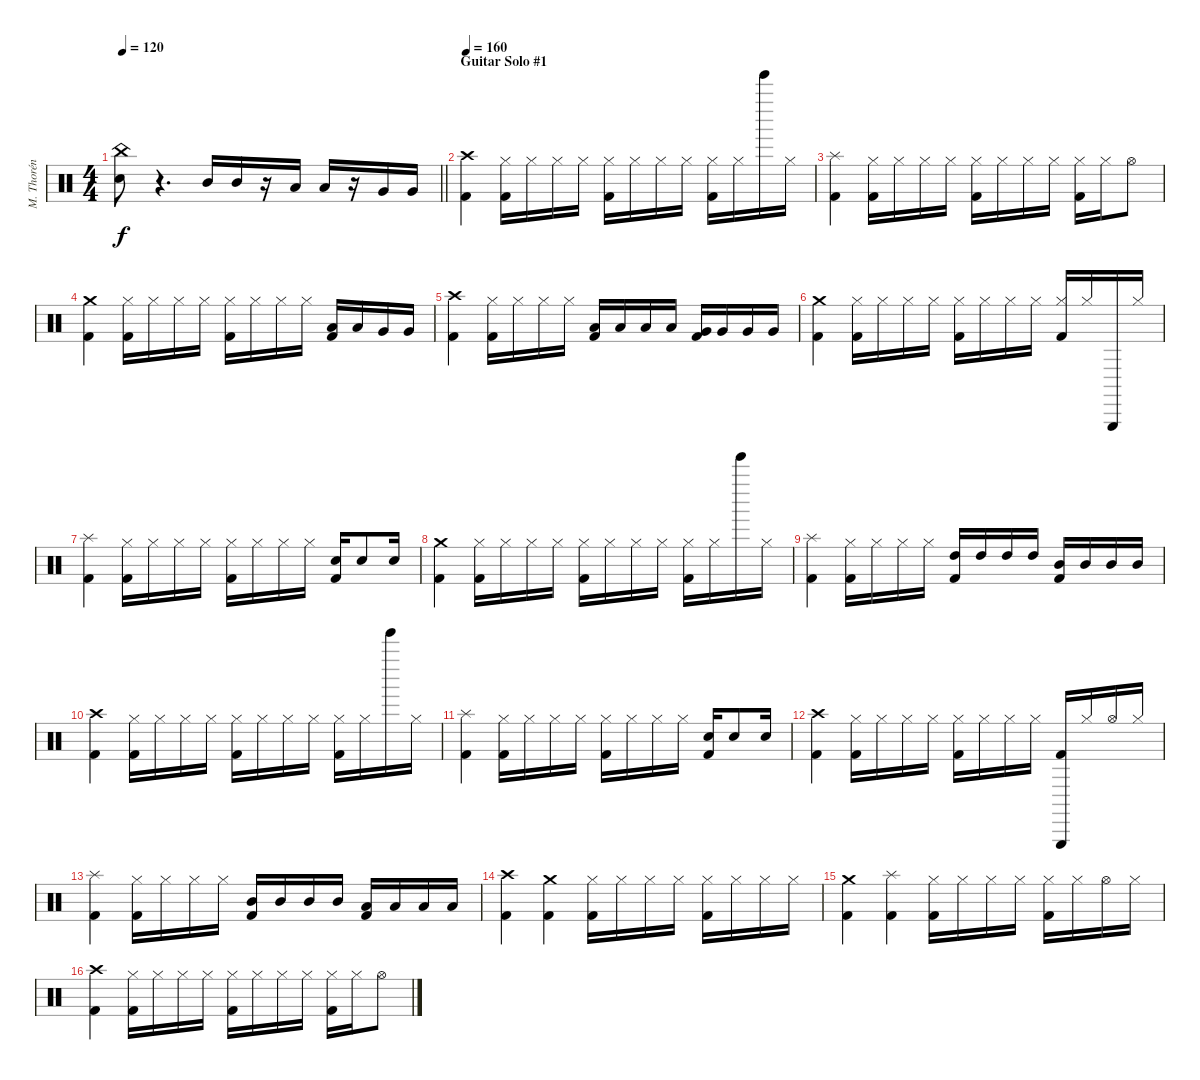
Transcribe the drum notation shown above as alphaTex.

\track ("M. Thorén (Drums)" "M. Thorén ") {instrument percussion}
\staff {score}
\articulation defaults
\ts (4 4)
\tempo 120
\clef neutral
\barLineRight lightlight
\ks c
("China (hit)" "Electric Snare (hit)").8{dy f} r.4{d} "Mid Tom (hit)".16 "Mid Tom (hit)".16 r.16 "Low Tom (hit)".16 "Low Tom (hit)".16 r.16 "Very Low Tom (hit)".16 "Very Low Tom (hit)".16 |
\section ("" "Guitar Solo #1")
\tempo 160
("Crash high (hit)" "Kick (hit) 2").4 ("Hi-Hat (closed)" "Kick (hit) 2").16 "Hi-Hat (closed)".16 "Hi-Hat (closed)".16 "Hi-Hat (closed)".16 ("Hi-Hat (closed)" "Kick (hit) 2").16 "Hi-Hat (closed)".16 "Hi-Hat (closed)".16 "Hi-Hat (closed)".16 ("Hi-Hat (closed)" "Kick (hit) 2").16 "Hi-Hat (closed)".16 "Tinkle Bell (hit)".16 "Hi-Hat (closed)".16 |
("Splash (hit)" "Kick (hit) 2").4 ("Hi-Hat (closed)" "Kick (hit) 2").16 "Hi-Hat (closed)".16 "Hi-Hat (closed)".16 "Hi-Hat (closed)".16 ("Hi-Hat (closed)" "Kick (hit) 2").16 "Hi-Hat (closed)".16 "Hi-Hat (closed)".16 "Hi-Hat (closed)".16 ("Hi-Hat (closed)" "Kick (hit) 2").16 "Hi-Hat (closed)".16 "Hi-Hat (open)".8 |
("Crash medium (hit)" "Kick (hit) 2").4 ("Hi-Hat (closed)" "Kick (hit) 2").16 "Hi-Hat (closed)".16 "Hi-Hat (closed)".16 "Hi-Hat (closed)".16 ("Hi-Hat (closed)" "Kick (hit) 2").16 "Hi-Hat (closed)".16 "Hi-Hat (closed)".16 "Hi-Hat (closed)".16 ("Low Tom (hit)" "Kick (hit) 2").16 "Low Tom (hit)".16 "Very Low Tom (hit)".16 "Very Low Tom (hit)".16 |
("Crash high (hit)" "Kick (hit) 2").4 ("Hi-Hat (closed)" "Kick (hit) 2").16 "Hi-Hat (closed)".16 "Hi-Hat (closed)".16 "Hi-Hat (closed)".16 ("Low Tom (hit)" "Kick (hit) 2").16 "Low Tom (hit)".16 "Low Tom (hit)".16 "Low Tom (hit)".16 ("Very Low Tom (hit)" "Kick (hit) 2").16 "Very Low Tom (hit)".16 "Very Low Tom (hit)".16 "Very Low Tom (hit)".16 |
("Crash medium (hit)" "Kick (hit) 2").4 ("Hi-Hat (closed)" "Kick (hit) 2").16 "Hi-Hat (closed)".16 "Hi-Hat (closed)".16 "Hi-Hat (closed)".16 ("Hi-Hat (closed)" "Kick (hit) 2").16 "Hi-Hat (closed)".16 "Hi-Hat (closed)".16 "Hi-Hat (closed)".16 ("Hi-Hat (closed)" "Kick (hit) 2").16 "Hi-Hat (closed)".16 "Triangle (hit)".16 "Hi-Hat (closed)".16 |
("Splash (hit)" "Kick (hit) 2").4 ("Hi-Hat (closed)" "Kick (hit) 2").16 "Hi-Hat (closed)".16 "Hi-Hat (closed)".16 "Hi-Hat (closed)".16 ("Hi-Hat (closed)" "Kick (hit) 2").16 "Hi-Hat (closed)".16 "Hi-Hat (closed)".16 "Hi-Hat (closed)".16 ("Electric Snare (hit)" "Kick (hit) 2").16 "Electric Snare (hit)".8 "Electric Snare (hit)".16 |
("Crash medium (hit)" "Kick (hit) 2").4 ("Hi-Hat (closed)" "Kick (hit) 2").16 "Hi-Hat (closed)".16 "Hi-Hat (closed)".16 "Hi-Hat (closed)".16 ("Hi-Hat (closed)" "Kick (hit) 2").16 "Hi-Hat (closed)".16 "Hi-Hat (closed)".16 "Hi-Hat (closed)".16 ("Hi-Hat (closed)" "Kick (hit) 2").16 "Hi-Hat (closed)".16 "Tinkle Bell (hit)".16 "Hi-Hat (closed)".16 |
("Splash (hit)" "Kick (hit) 2").4 ("Hi-Hat (closed)" "Kick (hit) 2").16 "Hi-Hat (closed)".16 "Hi-Hat (closed)".16 "Hi-Hat (closed)".16 ("High Tom (hit)" "Kick (hit) 2").16 "High Tom (hit)".16 "High Tom (hit)".16 "High Tom (hit)".16 ("Mid Tom (hit)" "Kick (hit) 2").16 "Mid Tom (hit)".16 "Mid Tom (hit)".16 "Mid Tom (hit)".16 |
("Crash high (hit)" "Kick (hit) 2").4 ("Hi-Hat (closed)" "Kick (hit) 2").16 "Hi-Hat (closed)".16 "Hi-Hat (closed)".16 "Hi-Hat (closed)".16 ("Hi-Hat (closed)" "Kick (hit) 2").16 "Hi-Hat (closed)".16 "Hi-Hat (closed)".16 "Hi-Hat (closed)".16 ("Hi-Hat (closed)" "Kick (hit) 2").16 "Hi-Hat (closed)".16 "Tinkle Bell (hit)".16 "Hi-Hat (closed)".16 |
("Splash (hit)" "Kick (hit) 2").4 ("Hi-Hat (closed)" "Kick (hit) 2").16 "Hi-Hat (closed)".16 "Hi-Hat (closed)".16 "Hi-Hat (closed)".16 ("Hi-Hat (closed)" "Kick (hit) 2").16 "Hi-Hat (closed)".16 "Hi-Hat (closed)".16 "Hi-Hat (closed)".16 ("Electric Snare (hit)" "Kick (hit) 2").16 "Electric Snare (hit)".8 "Electric Snare (hit)".16 |
("Crash high (hit)" "Kick (hit) 2").4 ("Hi-Hat (closed)" "Kick (hit) 2").16 "Hi-Hat (closed)".16 "Hi-Hat (closed)".16 "Hi-Hat (closed)".16 ("Hi-Hat (closed)" "Kick (hit) 2").16 "Hi-Hat (closed)".16 "Hi-Hat (closed)".16 "Hi-Hat (closed)".16 ("Triangle (hit)" "Kick (hit) 2").16 "Hi-Hat (closed)".16 "Hi-Hat (open)".16 "Hi-Hat (closed)".16 |
("Splash (hit)" "Kick (hit) 2").4 ("Hi-Hat (closed)" "Kick (hit) 2").16 "Hi-Hat (closed)".16 "Hi-Hat (closed)".16 "Hi-Hat (closed)".16 ("Mid Tom (hit)" "Kick (hit) 2").16 "Mid Tom (hit)".16 "Mid Tom (hit)".16 "Mid Tom (hit)".16 ("Low Tom (hit)" "Kick (hit) 2").16 "Low Tom (hit)".16 "Low Tom (hit)".16 "Low Tom (hit)".16 |
("Crash high (hit)" "Kick (hit) 2").4 ("Crash medium (hit)" "Kick (hit) 2").4 ("Hi-Hat (closed)" "Kick (hit) 2").16 "Hi-Hat (closed)".16 "Hi-Hat (closed)".16 "Hi-Hat (closed)".16 ("Hi-Hat (closed)" "Kick (hit) 2").16 "Hi-Hat (closed)".16 "Hi-Hat (closed)".16 "Hi-Hat (closed)".16 |
("Crash medium (hit)" "Kick (hit) 2").4 ("Splash (hit)" "Kick (hit) 2").4 ("Hi-Hat (closed)" "Kick (hit) 2").16 "Hi-Hat (closed)".16 "Hi-Hat (closed)".16 "Hi-Hat (closed)".16 ("Hi-Hat (closed)" "Kick (hit) 2").16 "Hi-Hat (closed)".16 "Hi-Hat (open)".16 "Hi-Hat (closed)".16 |
("Crash high (hit)" "Kick (hit) 2").4 ("Hi-Hat (closed)" "Kick (hit) 2").16 "Hi-Hat (closed)".16 "Hi-Hat (closed)".16 "Hi-Hat (closed)".16 ("Hi-Hat (closed)" "Kick (hit) 2").16 "Hi-Hat (closed)".16 "Hi-Hat (closed)".16 "Hi-Hat (closed)".16 ("Hi-Hat (closed)" "Kick (hit) 2").16 "Hi-Hat (closed)".16 "Hi-Hat (open)".8
